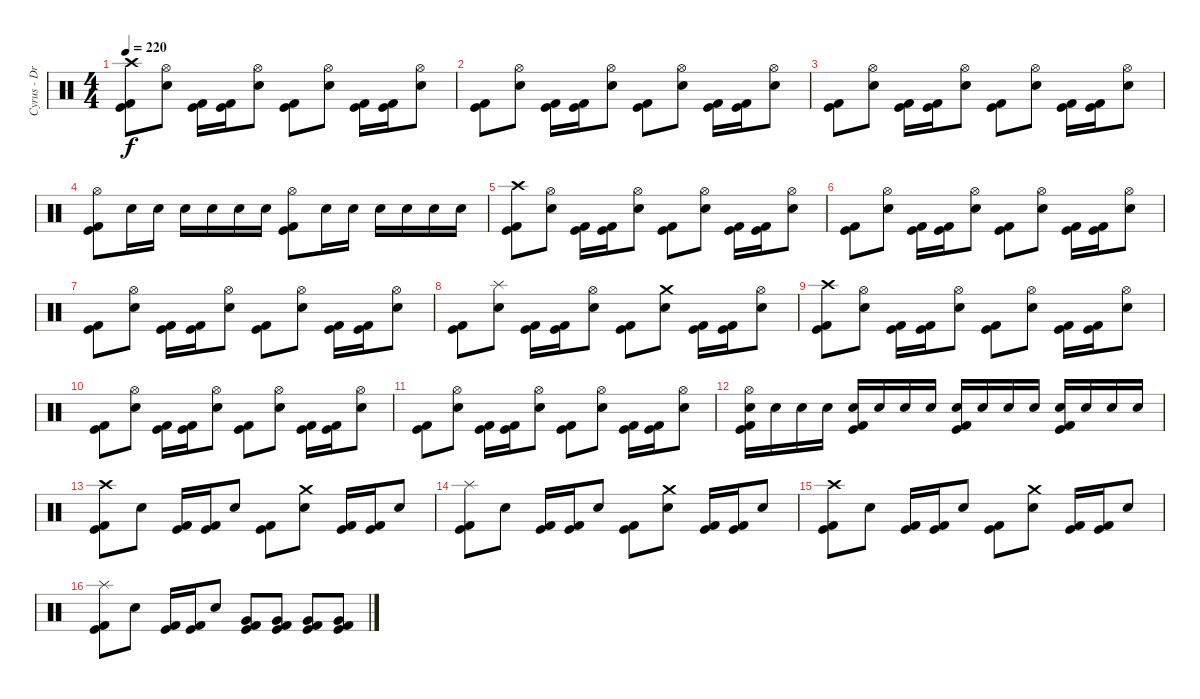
\track ("Cyrus - Drums" "Cyrus - Dr") {instrument percussion}
\staff {score}
\articulation defaults
\ts (4 4)
\tempo 220
\clef neutral
\ks c
("Kick (hit)" "Kick (hit) 2" "Crash high (hit)").8{dy f} ("Electric Snare (hit)" "Hi-Hat (open)").8 ("Kick (hit)" "Kick (hit) 2").16 ("Kick (hit)" "Kick (hit) 2").16 ("Electric Snare (hit)" "Hi-Hat (open)").8 ("Kick (hit)" "Kick (hit) 2").8 ("Electric Snare (hit)" "Hi-Hat (open)").8 ("Kick (hit)" "Kick (hit) 2").16 ("Kick (hit)" "Kick (hit) 2").16 ("Electric Snare (hit)" "Hi-Hat (open)").8 |
("Kick (hit)" "Kick (hit) 2").8 ("Electric Snare (hit)" "Hi-Hat (open)").8 ("Kick (hit)" "Kick (hit) 2").16 ("Kick (hit)" "Kick (hit) 2").16 ("Electric Snare (hit)" "Hi-Hat (open)").8 ("Kick (hit)" "Kick (hit) 2").8 ("Electric Snare (hit)" "Hi-Hat (open)").8 ("Kick (hit)" "Kick (hit) 2").16 ("Kick (hit)" "Kick (hit) 2").16 ("Electric Snare (hit)" "Hi-Hat (open)").8 |
("Kick (hit)" "Kick (hit) 2").8 ("Electric Snare (hit)" "Hi-Hat (open)").8 ("Kick (hit)" "Kick (hit) 2").16 ("Kick (hit)" "Kick (hit) 2").16 ("Electric Snare (hit)" "Hi-Hat (open)").8 ("Kick (hit)" "Kick (hit) 2").8 ("Electric Snare (hit)" "Hi-Hat (open)").8 ("Kick (hit)" "Kick (hit) 2").16 ("Kick (hit)" "Kick (hit) 2").16 ("Electric Snare (hit)" "Hi-Hat (open)").8 |
("Kick (hit)" "Kick (hit) 2" "Hi-Hat (open)").8 "Electric Snare (hit)".16 "Electric Snare (hit)".16 "Electric Snare (hit)".16 "Electric Snare (hit)".16 "Electric Snare (hit)".16 "Electric Snare (hit)".16 ("Kick (hit)" "Kick (hit) 2" "Hi-Hat (open)").8 "Electric Snare (hit)".16 "Electric Snare (hit)".16 "Electric Snare (hit)".16 "Electric Snare (hit)".16 "Electric Snare (hit)".16 "Electric Snare (hit)".16 |
("Kick (hit)" "Kick (hit) 2" "Crash high (hit)").8 ("Electric Snare (hit)" "Hi-Hat (open)").8 ("Kick (hit)" "Kick (hit) 2").16 ("Kick (hit)" "Kick (hit) 2").16 ("Electric Snare (hit)" "Hi-Hat (open)").8 ("Kick (hit)" "Kick (hit) 2").8 ("Electric Snare (hit)" "Hi-Hat (open)").8 ("Kick (hit)" "Kick (hit) 2").16 ("Kick (hit)" "Kick (hit) 2").16 ("Electric Snare (hit)" "Hi-Hat (open)").8 |
("Kick (hit)" "Kick (hit) 2").8 ("Electric Snare (hit)" "Hi-Hat (open)").8 ("Kick (hit)" "Kick (hit) 2").16 ("Kick (hit)" "Kick (hit) 2").16 ("Electric Snare (hit)" "Hi-Hat (open)").8 ("Kick (hit)" "Kick (hit) 2").8 ("Electric Snare (hit)" "Hi-Hat (open)").8 ("Kick (hit)" "Kick (hit) 2").16 ("Kick (hit)" "Kick (hit) 2").16 ("Electric Snare (hit)" "Hi-Hat (open)").8 |
("Kick (hit)" "Kick (hit) 2").8 ("Electric Snare (hit)" "Hi-Hat (open)").8 ("Kick (hit)" "Kick (hit) 2").16 ("Kick (hit)" "Kick (hit) 2").16 ("Electric Snare (hit)" "Hi-Hat (open)").8 ("Kick (hit)" "Kick (hit) 2").8 ("Electric Snare (hit)" "Hi-Hat (open)").8 ("Kick (hit)" "Kick (hit) 2").16 ("Kick (hit)" "Kick (hit) 2").16 ("Electric Snare (hit)" "Hi-Hat (open)").8 |
("Kick (hit)" "Kick (hit) 2").8 ("Electric Snare (hit)" "Splash (hit)").8 ("Kick (hit)" "Kick (hit) 2").16 ("Kick (hit)" "Kick (hit) 2").16 ("Electric Snare (hit)" "Hi-Hat (open)").8 ("Kick (hit)" "Kick (hit) 2").8 ("Electric Snare (hit)" "Crash medium (hit)").8 ("Kick (hit)" "Kick (hit) 2").16 ("Kick (hit)" "Kick (hit) 2").16 ("Electric Snare (hit)" "Hi-Hat (open)").8 |
("Kick (hit)" "Kick (hit) 2" "Crash high (hit)").8 ("Electric Snare (hit)" "Hi-Hat (open)").8 ("Kick (hit)" "Kick (hit) 2").16 ("Kick (hit)" "Kick (hit) 2").16 ("Electric Snare (hit)" "Hi-Hat (open)").8 ("Kick (hit)" "Kick (hit) 2").8 ("Electric Snare (hit)" "Hi-Hat (open)").8 ("Kick (hit)" "Kick (hit) 2").16 ("Kick (hit)" "Kick (hit) 2").16 ("Electric Snare (hit)" "Hi-Hat (open)").8 |
("Kick (hit)" "Kick (hit) 2").8 ("Electric Snare (hit)" "Hi-Hat (open)").8 ("Kick (hit)" "Kick (hit) 2").16 ("Kick (hit)" "Kick (hit) 2").16 ("Electric Snare (hit)" "Hi-Hat (open)").8 ("Kick (hit)" "Kick (hit) 2").8 ("Electric Snare (hit)" "Hi-Hat (open)").8 ("Kick (hit)" "Kick (hit) 2").16 ("Kick (hit)" "Kick (hit) 2").16 ("Electric Snare (hit)" "Hi-Hat (open)").8 |
("Kick (hit)" "Kick (hit) 2").8 ("Electric Snare (hit)" "Hi-Hat (open)").8 ("Kick (hit)" "Kick (hit) 2").16 ("Kick (hit)" "Kick (hit) 2").16 ("Electric Snare (hit)" "Hi-Hat (open)").8 ("Kick (hit)" "Kick (hit) 2").8 ("Electric Snare (hit)" "Hi-Hat (open)").8 ("Kick (hit)" "Kick (hit) 2").16 ("Kick (hit)" "Kick (hit) 2").16 ("Electric Snare (hit)" "Hi-Hat (open)").8 |
("Kick (hit)" "Kick (hit) 2" "Electric Snare (hit)" "Hi-Hat (open)").16 "Electric Snare (hit)".16 "Electric Snare (hit)".16 "Electric Snare (hit)".16 ("Kick (hit)" "Kick (hit) 2" "Electric Snare (hit)").16 "Electric Snare (hit)".16 "Electric Snare (hit)".16 "Electric Snare (hit)".16 ("Kick (hit)" "Kick (hit) 2" "Electric Snare (hit)").16 "Electric Snare (hit)".16 "Electric Snare (hit)".16 "Electric Snare (hit)".16 ("Kick (hit)" "Kick (hit) 2" "Electric Snare (hit)").16 "Electric Snare (hit)".16 "Electric Snare (hit)".16 "Electric Snare (hit)".16 |
("Kick (hit)" "Kick (hit) 2" "Crash high (hit)").8 "Electric Snare (hit)".8 ("Kick (hit)" "Kick (hit) 2").16 ("Kick (hit)" "Kick (hit) 2").16 "Electric Snare (hit)".8 ("Kick (hit)" "Kick (hit) 2").8 ("Electric Snare (hit)" "Crash medium (hit)").8 ("Kick (hit)" "Kick (hit) 2").16 ("Kick (hit)" "Kick (hit) 2").16 "Electric Snare (hit)".8 |
("Kick (hit)" "Kick (hit) 2" "Splash (hit)").8 "Electric Snare (hit)".8 ("Kick (hit)" "Kick (hit) 2").16 ("Kick (hit)" "Kick (hit) 2").16 "Electric Snare (hit)".8 ("Kick (hit)" "Kick (hit) 2").8 ("Electric Snare (hit)" "Crash medium (hit)").8 ("Kick (hit)" "Kick (hit) 2").16 ("Kick (hit)" "Kick (hit) 2").16 "Electric Snare (hit)".8 |
("Kick (hit)" "Kick (hit) 2" "Crash high (hit)").8 "Electric Snare (hit)".8 ("Kick (hit)" "Kick (hit) 2").16 ("Kick (hit)" "Kick (hit) 2").16 "Electric Snare (hit)".8 ("Kick (hit)" "Kick (hit) 2").8 ("Electric Snare (hit)" "Crash medium (hit)").8 ("Kick (hit)" "Kick (hit) 2").16 ("Kick (hit)" "Kick (hit) 2").16 "Electric Snare (hit)".8 |
("Kick (hit)" "Kick (hit) 2" "Splash (hit)").8 "Electric Snare (hit)".8 ("Kick (hit)" "Kick (hit) 2").16 ("Kick (hit)" "Kick (hit) 2").16 "Electric Snare (hit)".8 ("Kick (hit)" "Kick (hit) 2" "Very Low Tom (hit)").8 ("Kick (hit)" "Kick (hit) 2" "Very Low Tom (hit)").8 ("Kick (hit)" "Kick (hit) 2" "Very Low Tom (hit)").8 ("Kick (hit)" "Kick (hit) 2" "Very Low Tom (hit)").8
